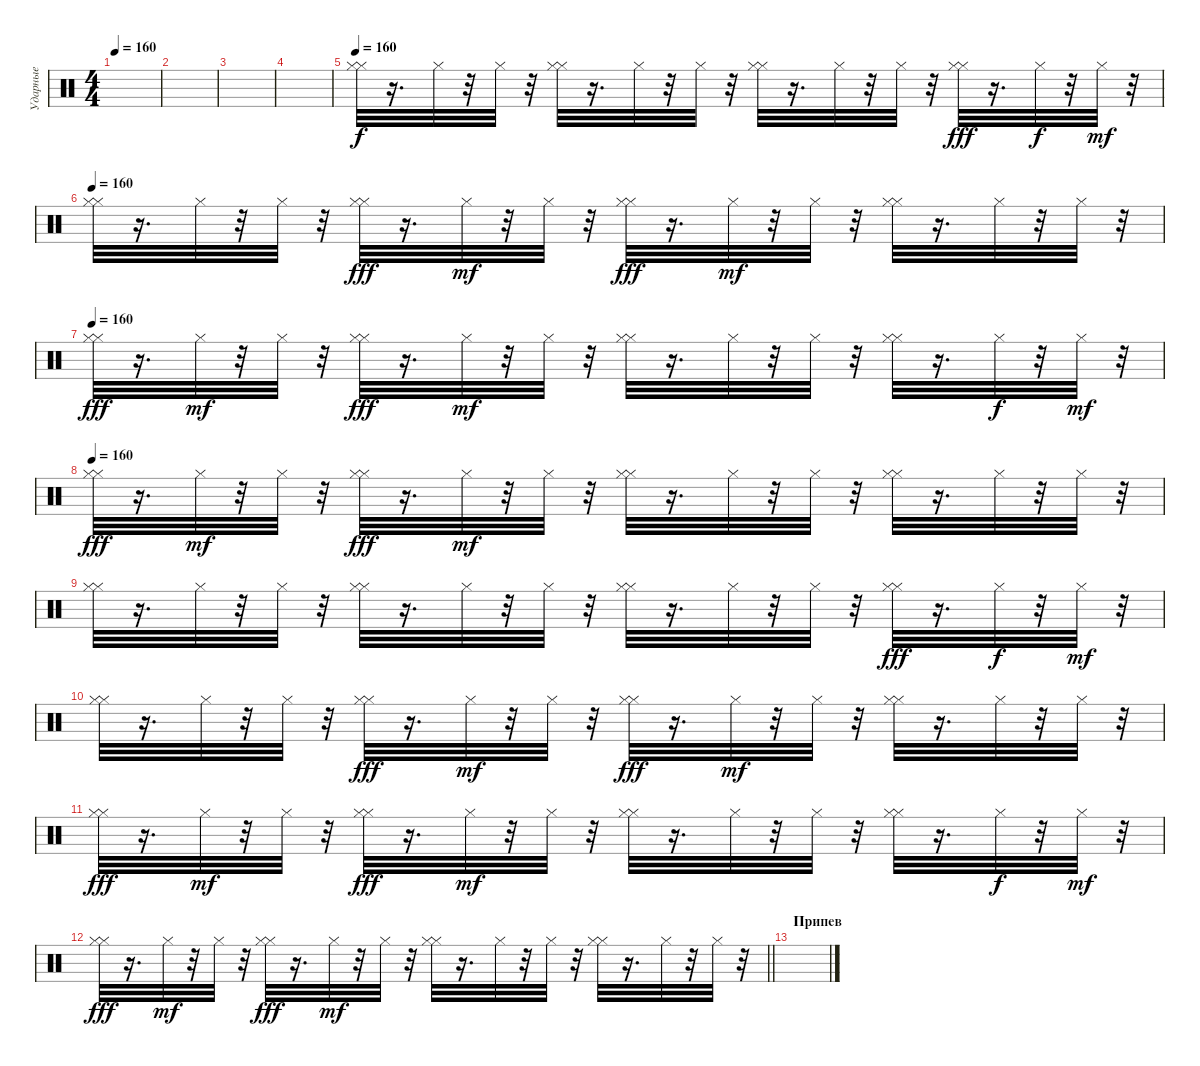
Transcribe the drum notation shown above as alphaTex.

\track ("Ударные" "Ударные") {instrument percussion}
\staff {score}
\articulation defaults
\ts (4 4)
\tempo 160
\clef neutral
\ks c
|
|
|
|
\tempo 160
("Hi-Hat (closed)" "Hi-Hat (closed)").32 r.16{d} "Hi-Hat (closed)".32 r.32 "Hi-Hat (closed)".32 r.32 ("Hi-Hat (closed)" "Hi-Hat (closed)").32 r.16{d} "Hi-Hat (closed)".32 r.32 "Hi-Hat (closed)".32 r.32 ("Hi-Hat (closed)" "Hi-Hat (closed)").32 r.16{d} "Hi-Hat (closed)".32 r.32 "Hi-Hat (closed)".32 r.32 ("Hi-Hat (closed)" "Hi-Hat (closed)").32{dy fff} r.16{d} "Hi-Hat (closed)".32{dy f} r.32 "Hi-Hat (closed)".32{dy mf} r.32 |
\tempo 160
("Hi-Hat (closed)" "Hi-Hat (closed)").32 r.16{d} "Hi-Hat (closed)".32 r.32 "Hi-Hat (closed)".32 r.32 ("Hi-Hat (closed)" "Hi-Hat (closed)").32{dy fff} r.16{d} "Hi-Hat (closed)".32{dy mf} r.32 "Hi-Hat (closed)".32 r.32 ("Hi-Hat (closed)" "Hi-Hat (closed)").32{dy fff} r.16{d} "Hi-Hat (closed)".32{dy mf} r.32 "Hi-Hat (closed)".32 r.32 ("Hi-Hat (closed)" "Hi-Hat (closed)").32 r.16{d} "Hi-Hat (closed)".32 r.32 "Hi-Hat (closed)".32 r.32 |
\tempo 160
("Hi-Hat (closed)" "Hi-Hat (closed)").32{dy fff} r.16{d} "Hi-Hat (closed)".32{dy mf} r.32 "Hi-Hat (closed)".32 r.32 ("Hi-Hat (closed)" "Hi-Hat (closed)").32{dy fff} r.16{d} "Hi-Hat (closed)".32{dy mf} r.32 "Hi-Hat (closed)".32 r.32 ("Hi-Hat (closed)" "Hi-Hat (closed)").32 r.16{d} "Hi-Hat (closed)".32 r.32 "Hi-Hat (closed)".32 r.32 ("Hi-Hat (closed)" "Hi-Hat (closed)").32 r.16{d} "Hi-Hat (closed)".32{dy f} r.32 "Hi-Hat (closed)".32{dy mf} r.32 |
\tempo 160
("Hi-Hat (closed)" "Hi-Hat (closed)").32{dy fff} r.16{d} "Hi-Hat (closed)".32{dy mf} r.32 "Hi-Hat (closed)".32 r.32 ("Hi-Hat (closed)" "Hi-Hat (closed)").32{dy fff} r.16{d} "Hi-Hat (closed)".32{dy mf} r.32 "Hi-Hat (closed)".32 r.32 ("Hi-Hat (closed)" "Hi-Hat (closed)").32 r.16{d} "Hi-Hat (closed)".32 r.32 "Hi-Hat (closed)".32 r.32 ("Hi-Hat (closed)" "Hi-Hat (closed)").32 r.16{d} "Hi-Hat (closed)".32 r.32 "Hi-Hat (closed)".32 r.32 |
("Hi-Hat (closed)" "Hi-Hat (closed)").32 r.16{d} "Hi-Hat (closed)".32 r.32 "Hi-Hat (closed)".32 r.32 ("Hi-Hat (closed)" "Hi-Hat (closed)").32 r.16{d} "Hi-Hat (closed)".32 r.32 "Hi-Hat (closed)".32 r.32 ("Hi-Hat (closed)" "Hi-Hat (closed)").32 r.16{d} "Hi-Hat (closed)".32 r.32 "Hi-Hat (closed)".32 r.32 ("Hi-Hat (closed)" "Hi-Hat (closed)").32{dy fff} r.16{d} "Hi-Hat (closed)".32{dy f} r.32 "Hi-Hat (closed)".32{dy mf} r.32 |
("Hi-Hat (closed)" "Hi-Hat (closed)").32 r.16{d} "Hi-Hat (closed)".32 r.32 "Hi-Hat (closed)".32 r.32 ("Hi-Hat (closed)" "Hi-Hat (closed)").32{dy fff} r.16{d} "Hi-Hat (closed)".32{dy mf} r.32 "Hi-Hat (closed)".32 r.32 ("Hi-Hat (closed)" "Hi-Hat (closed)").32{dy fff} r.16{d} "Hi-Hat (closed)".32{dy mf} r.32 "Hi-Hat (closed)".32 r.32 ("Hi-Hat (closed)" "Hi-Hat (closed)").32 r.16{d} "Hi-Hat (closed)".32 r.32 "Hi-Hat (closed)".32 r.32 |
("Hi-Hat (closed)" "Hi-Hat (closed)").32{dy fff} r.16{d} "Hi-Hat (closed)".32{dy mf} r.32 "Hi-Hat (closed)".32 r.32 ("Hi-Hat (closed)" "Hi-Hat (closed)").32{dy fff} r.16{d} "Hi-Hat (closed)".32{dy mf} r.32 "Hi-Hat (closed)".32 r.32 ("Hi-Hat (closed)" "Hi-Hat (closed)").32 r.16{d} "Hi-Hat (closed)".32 r.32 "Hi-Hat (closed)".32 r.32 ("Hi-Hat (closed)" "Hi-Hat (closed)").32 r.16{d} "Hi-Hat (closed)".32{dy f} r.32 "Hi-Hat (closed)".32{dy mf} r.32 |
\barLineRight lightlight
("Hi-Hat (closed)" "Hi-Hat (closed)").32{dy fff} r.16{d} "Hi-Hat (closed)".32{dy mf} r.32 "Hi-Hat (closed)".32 r.32 ("Hi-Hat (closed)" "Hi-Hat (closed)").32{dy fff} r.16{d} "Hi-Hat (closed)".32{dy mf} r.32 "Hi-Hat (closed)".32 r.32 ("Hi-Hat (closed)" "Hi-Hat (closed)").32 r.16{d} "Hi-Hat (closed)".32 r.32 "Hi-Hat (closed)".32 r.32 ("Hi-Hat (closed)" "Hi-Hat (closed)").32 r.16{d} "Hi-Hat (closed)".32 r.32 "Hi-Hat (closed)".32 r.32 |
\section ("" "Припев")
